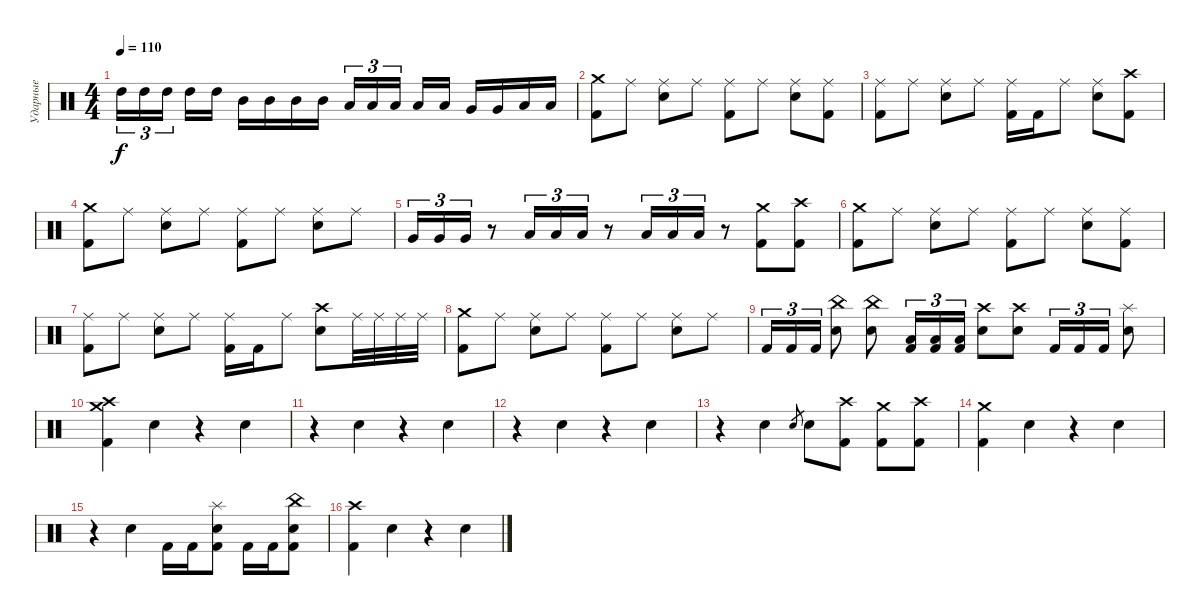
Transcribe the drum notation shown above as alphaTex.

\track ("Ударные" "Ударные") {instrument percussion}
\staff {score}
\articulation defaults
\ts (4 4)
\tempo 110
\clef neutral
\ks c "High Tom (hit)".16{tu (3 2) dy f} "High Tom (hit)".16{tu (3 2)} "High Tom (hit)".16{tu (3 2) beam splitsecondary} "High Tom (hit)".16 "High Tom (hit)".16 "Mid Tom (hit)".16 "Mid Tom (hit)".16 "Mid Tom (hit)".16 "Mid Tom (hit)".16 "Low Tom (hit)".16{tu (3 2)} "Low Tom (hit)".16{tu (3 2)} "Low Tom (hit)".16{tu (3 2) beam splitsecondary} "Low Tom (hit)".16 "Low Tom (hit)".16 "Very Low Tom (hit)".16 "Very Low Tom (hit)".16 "Low Floor Tom (hit)".16 "Low Floor Tom (hit)".16
|
("Crash medium (hit)" "Kick (hit) 2").8 "Ride (middle)".8 ("Ride (middle)" "Electric Snare (hit)").8 "Ride (middle)".8 ("Ride (middle)" "Kick (hit) 2").8 "Ride (middle)".8 ("Ride (middle)" "Electric Snare (hit)").8 ("Ride (middle)" "Kick (hit) 2").8 |
("Ride (middle)" "Kick (hit) 2").8 "Ride (middle)".8 ("Ride (middle)" "Electric Snare (hit)").8 "Ride (middle)".8 ("Ride (middle)" "Kick (hit) 2").16 "Kick (hit) 2".16 "Ride (middle)".8 ("Ride (middle)" "Electric Snare (hit)").8 ("Crash high (hit)" "Kick (hit) 2").8 |
("Crash medium (hit)" "Kick (hit) 2").8 "Ride (middle)".8 ("Ride (middle)" "Electric Snare (hit)").8 "Ride (middle)".8 ("Ride (middle)" "Kick (hit) 2").8 "Ride (middle)".8 ("Ride (middle)" "Electric Snare (hit)").8 "Ride (middle)".8 |
"Very Low Tom (hit)".16{tu (3 2)} "Very Low Tom (hit)".16{tu (3 2)} "Very Low Tom (hit)".16{tu (3 2)} r.8 "Low Floor Tom (hit)".16{tu (3 2)} "Low Floor Tom (hit)".16{tu (3 2)} "Low Floor Tom (hit)".16{tu (3 2)} r.8 "Low Tom (hit)".16{tu (3 2)} "Low Tom (hit)".16{tu (3 2)} "Low Tom (hit)".16{tu (3 2)} r.8 ("Crash medium (hit)" "Kick (hit) 2").8 ("Crash high (hit)" "Kick (hit) 2").8 |
("Crash medium (hit)" "Kick (hit) 2").8 "Ride (middle)".8 ("Ride (middle)" "Electric Snare (hit)").8 "Ride (middle)".8 ("Ride (middle)" "Kick (hit) 2").8 "Ride (middle)".8 ("Ride (middle)" "Electric Snare (hit)").8 ("Ride (middle)" "Kick (hit) 2").8 |
("Ride (middle)" "Kick (hit) 2").8 "Ride (middle)".8 ("Ride (middle)" "Electric Snare (hit)").8 "Ride (middle)".8 ("Ride (middle)" "Kick (hit) 2").16 "Kick (hit) 2".16 "Ride (middle)".8 ("Crash high (hit)" "Electric Snare (hit)").8 "Ride (middle)".32 "Ride (middle)".32 "Ride (middle)".32 "Ride (middle)".32 |
("Crash medium (hit)" "Kick (hit) 2").8 "Ride (middle)".8 ("Ride (middle)" "Electric Snare (hit)").8 "Ride (middle)".8 ("Ride (middle)" "Kick (hit) 2").8 "Ride (middle)".8 ("Ride (middle)" "Electric Snare (hit)").8 "Ride (middle)".8 |
"Kick (hit) 2".16{tu (3 2)} "Kick (hit) 2".16{tu (3 2)} "Kick (hit) 2".16{tu (3 2)} ("China (hit)" "Electric Snare (hit)").8 ("China (hit)" "Electric Snare (hit)").8 ("Low Tom (hit)" "Kick (hit) 2").16{tu (3 2)} ("Low Tom (hit)" "Kick (hit) 2").16{tu (3 2)} ("Low Tom (hit)" "Kick (hit) 2").16{tu (3 2)} ("Crash high (hit)" "Electric Snare (hit)").8 ("Crash high (hit)" "Electric Snare (hit)").8 "Kick (hit) 2".16{tu (3 2)} "Kick (hit) 2".16{tu (3 2)} "Kick (hit) 2".16{tu (3 2)} ("Splash (hit)" "Electric Snare (hit)").8 |
("Crash medium (hit)" "Crash high (hit)" "Kick (hit) 2").4 "Electric Snare (hit)".4 r.4 "Electric Snare (hit)".4 |
r.4 "Electric Snare (hit)".4 r.4 "Electric Snare (hit)".4 |
r.4 "Electric Snare (hit)".4 r.4 "Electric Snare (hit)".4 |
r.4 "Electric Snare (hit)".4 "Electric Snare (hit)".8{gr} "Electric Snare (hit)".8 ("Crash high (hit)" "Kick (hit) 2").8 ("Crash medium (hit)" "Kick (hit) 2").8 ("Crash high (hit)" "Kick (hit) 2").8 |
("Crash medium (hit)" "Kick (hit) 2").4 "Electric Snare (hit)".4 r.4 "Electric Snare (hit)".4 |
r.4 "Electric Snare (hit)".4 "Kick (hit) 2".16 "Kick (hit) 2".16 ("Splash (hit)" "Electric Snare (hit)" "Kick (hit) 2").8 "Kick (hit) 2".16 "Kick (hit) 2".16 ("China (hit)" "Electric Snare (hit)" "Kick (hit) 2").8 |
("Crash high (hit)" "Kick (hit) 2").4 "Electric Snare (hit)".4 r.4 "Electric Snare (hit)".4
